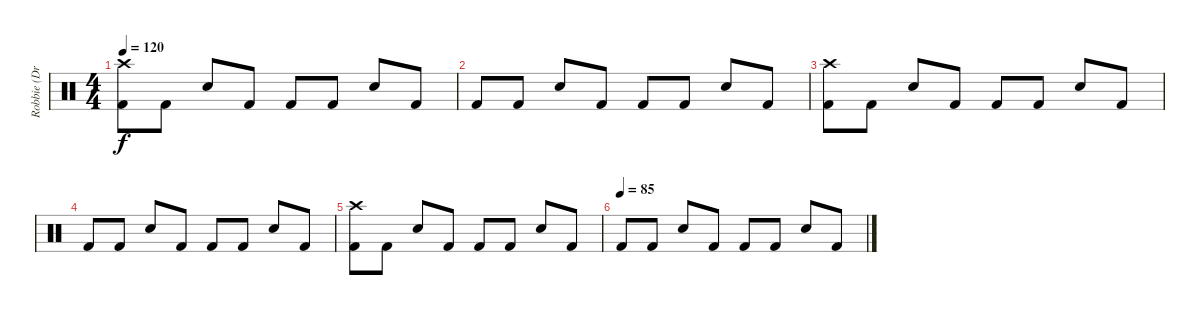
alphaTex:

\track ("Robbie (Drums)" "Robbie (Dr") {instrument percussion}
\staff {score}
\articulation defaults
\ts (4 4)
\tempo 120
\clef neutral
\ks c
("Crash high (hit)" "Kick (hit) 2").8{dy f} "Kick (hit) 2".8 "Electric Snare (hit)".8 "Kick (hit) 2".8 "Kick (hit) 2".8 "Kick (hit) 2".8 "Electric Snare (hit)".8 "Kick (hit) 2".8 |
"Kick (hit) 2".8 "Kick (hit) 2".8 "Electric Snare (hit)".8 "Kick (hit) 2".8 "Kick (hit) 2".8 "Kick (hit) 2".8 "Electric Snare (hit)".8 "Kick (hit) 2".8 |
("Crash high (hit)" "Kick (hit) 2").8 "Kick (hit) 2".8 "Electric Snare (hit)".8 "Kick (hit) 2".8 "Kick (hit) 2".8 "Kick (hit) 2".8 "Electric Snare (hit)".8 "Kick (hit) 2".8 |
"Kick (hit) 2".8 "Kick (hit) 2".8 "Electric Snare (hit)".8 "Kick (hit) 2".8 "Kick (hit) 2".8 "Kick (hit) 2".8 "Electric Snare (hit)".8 "Kick (hit) 2".8 |
("Crash high (hit)" "Kick (hit) 2").8 "Kick (hit) 2".8 "Electric Snare (hit)".8 "Kick (hit) 2".8 "Kick (hit) 2".8 "Kick (hit) 2".8 "Electric Snare (hit)".8 "Kick (hit) 2".8 |
\tempo (85)
"Kick (hit) 2".8 "Kick (hit) 2".8 "Electric Snare (hit)".8 "Kick (hit) 2".8 "Kick (hit) 2".8 "Kick (hit) 2".8 "Electric Snare (hit)".8 "Kick (hit) 2".8
